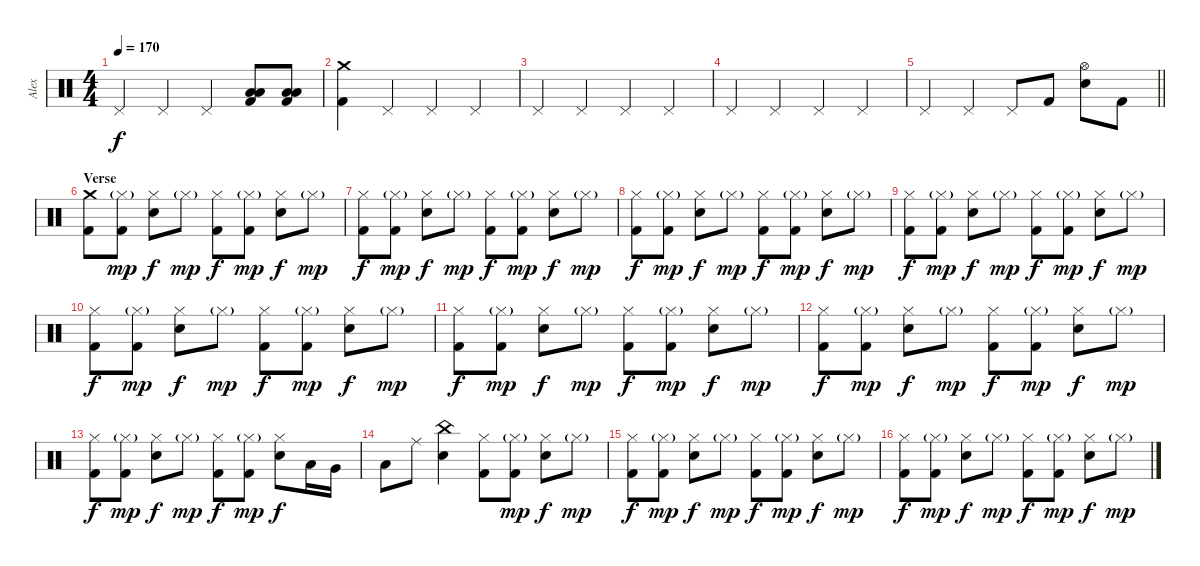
\track ("Alex" "Alex") {instrument percussion}
\staff {score}
\articulation defaults
\ts (4 4)
\tempo 170
\clef neutral
\ks c "Pedal Hi-Hat (hit)".4{dy f} "Pedal Hi-Hat (hit)".4 "Pedal Hi-Hat (hit)".4
("Low Tom (hit)" "Low Floor Tom (hit)" "Kick (hit) 2").8 ("Low Tom (hit)" "Low Floor Tom (hit)" "Kick (hit) 2").8 |
("Crash medium (hit)" "Kick (hit) 2").4 "Pedal Hi-Hat (hit)".4 "Pedal Hi-Hat (hit)".4 "Pedal Hi-Hat (hit)".4 |
"Pedal Hi-Hat (hit)".4 "Pedal Hi-Hat (hit)".4 "Pedal Hi-Hat (hit)".4 "Pedal Hi-Hat (hit)".4 |
"Pedal Hi-Hat (hit)".4 "Pedal Hi-Hat (hit)".4 "Pedal Hi-Hat (hit)".4 "Pedal Hi-Hat (hit)".4 |
\barLineRight lightlight "Pedal Hi-Hat (hit)".4 "Pedal Hi-Hat (hit)".4 "Pedal Hi-Hat (hit)".8 "Kick (hit) 2".8
("Hi-Hat (open)" "Electric Snare (hit)").8 "Kick (hit) 2".8 |
\section ("" "Verse")
("Crash medium (hit)" "Kick (hit) 2").8 ("Hi-Hat (closed)"{g} "Kick (hit) 2").8{dy mp} ("Hi-Hat (closed)" "Electric Snare (hit)").8{dy f} "Hi-Hat (closed)"{g}.8{dy mp} ("Hi-Hat (closed)" "Kick (hit) 2").8{dy f} ("Hi-Hat (closed)"{g} "Kick (hit) 2").8{dy mp} ("Hi-Hat (closed)" "Electric Snare (hit)").8{dy f} "Hi-Hat (closed)"{g}.8{dy mp} |
("Hi-Hat (closed)" "Kick (hit) 2").8{dy f} ("Hi-Hat (closed)"{g} "Kick (hit) 2").8{dy mp} ("Hi-Hat (closed)" "Electric Snare (hit)").8{dy f} "Hi-Hat (closed)"{g}.8{dy mp} ("Hi-Hat (closed)" "Kick (hit) 2").8{dy f} ("Hi-Hat (closed)"{g} "Kick (hit) 2").8{dy mp} ("Hi-Hat (closed)" "Electric Snare (hit)").8{dy f} "Hi-Hat (closed)"{g}.8{dy mp} |
("Hi-Hat (closed)" "Kick (hit) 2").8{dy f} ("Hi-Hat (closed)"{g} "Kick (hit) 2").8{dy mp} ("Hi-Hat (closed)" "Electric Snare (hit)").8{dy f} "Hi-Hat (closed)"{g}.8{dy mp} ("Hi-Hat (closed)" "Kick (hit) 2").8{dy f} ("Hi-Hat (closed)"{g} "Kick (hit) 2").8{dy mp} ("Hi-Hat (closed)" "Electric Snare (hit)").8{dy f} "Hi-Hat (closed)"{g}.8{dy mp} |
("Hi-Hat (closed)" "Kick (hit) 2").8{dy f} ("Hi-Hat (closed)"{g} "Kick (hit) 2").8{dy mp} ("Hi-Hat (closed)" "Electric Snare (hit)").8{dy f} "Hi-Hat (closed)"{g}.8{dy mp} ("Hi-Hat (closed)" "Kick (hit) 2").8{dy f} ("Hi-Hat (closed)"{g} "Kick (hit) 2").8{dy mp} ("Hi-Hat (closed)" "Electric Snare (hit)").8{dy f} "Hi-Hat (closed)"{g}.8{dy mp} |
("Hi-Hat (closed)" "Kick (hit) 2").8{dy f} ("Hi-Hat (closed)"{g} "Kick (hit) 2").8{dy mp} ("Hi-Hat (closed)" "Electric Snare (hit)").8{dy f} "Hi-Hat (closed)"{g}.8{dy mp} ("Hi-Hat (closed)" "Kick (hit) 2").8{dy f} ("Hi-Hat (closed)"{g} "Kick (hit) 2").8{dy mp} ("Hi-Hat (closed)" "Electric Snare (hit)").8{dy f} "Hi-Hat (closed)"{g}.8{dy mp} |
("Hi-Hat (closed)" "Kick (hit) 2").8{dy f} ("Hi-Hat (closed)"{g} "Kick (hit) 2").8{dy mp} ("Hi-Hat (closed)" "Electric Snare (hit)").8{dy f} "Hi-Hat (closed)"{g}.8{dy mp} ("Hi-Hat (closed)" "Kick (hit) 2").8{dy f} ("Hi-Hat (closed)"{g} "Kick (hit) 2").8{dy mp} ("Hi-Hat (closed)" "Electric Snare (hit)").8{dy f} "Hi-Hat (closed)"{g}.8{dy mp} |
("Hi-Hat (closed)" "Kick (hit) 2").8{dy f} ("Hi-Hat (closed)"{g} "Kick (hit) 2").8{dy mp} ("Hi-Hat (closed)" "Electric Snare (hit)").8{dy f} "Hi-Hat (closed)"{g}.8{dy mp} ("Hi-Hat (closed)" "Kick (hit) 2").8{dy f} ("Hi-Hat (closed)"{g} "Kick (hit) 2").8{dy mp} ("Hi-Hat (closed)" "Electric Snare (hit)").8{dy f} "Hi-Hat (closed)"{g}.8{dy mp} |
("Hi-Hat (closed)" "Kick (hit) 2").8{dy f} ("Hi-Hat (closed)"{g} "Kick (hit) 2").8{dy mp} ("Hi-Hat (closed)" "Electric Snare (hit)").8{dy f} "Hi-Hat (closed)"{g}.8{dy mp} ("Hi-Hat (closed)" "Kick (hit) 2").8{dy f} ("Hi-Hat (closed)"{g} "Kick (hit) 2").8{dy mp} ("Hi-Hat (closed)" "Electric Snare (hit)").8{dy f} "Low Tom (hit)".16 "Very Low Tom (hit)".16 |
"Low Floor Tom (hit)".8 "Ride (middle)".8 ("China (hit)" "Electric Snare (hit)").4 ("Hi-Hat (closed)" "Kick (hit) 2").8 ("Hi-Hat (closed)"{g} "Kick (hit) 2").8{dy mp} ("Hi-Hat (closed)" "Electric Snare (hit)").8{dy f} "Hi-Hat (closed)"{g}.8{dy mp} |
("Hi-Hat (closed)" "Kick (hit) 2").8{dy f} ("Hi-Hat (closed)"{g} "Kick (hit) 2").8{dy mp} ("Hi-Hat (closed)" "Electric Snare (hit)").8{dy f} "Hi-Hat (closed)"{g}.8{dy mp} ("Hi-Hat (closed)" "Kick (hit) 2").8{dy f} ("Hi-Hat (closed)"{g} "Kick (hit) 2").8{dy mp} ("Hi-Hat (closed)" "Electric Snare (hit)").8{dy f} "Hi-Hat (closed)"{g}.8{dy mp} |
("Hi-Hat (closed)" "Kick (hit) 2").8{dy f} ("Hi-Hat (closed)"{g} "Kick (hit) 2").8{dy mp} ("Hi-Hat (closed)" "Electric Snare (hit)").8{dy f} "Hi-Hat (closed)"{g}.8{dy mp} ("Hi-Hat (closed)" "Kick (hit) 2").8{dy f} ("Hi-Hat (closed)"{g} "Kick (hit) 2").8{dy mp} ("Hi-Hat (closed)" "Electric Snare (hit)").8{dy f} "Hi-Hat (closed)"{g}.8{dy mp}
